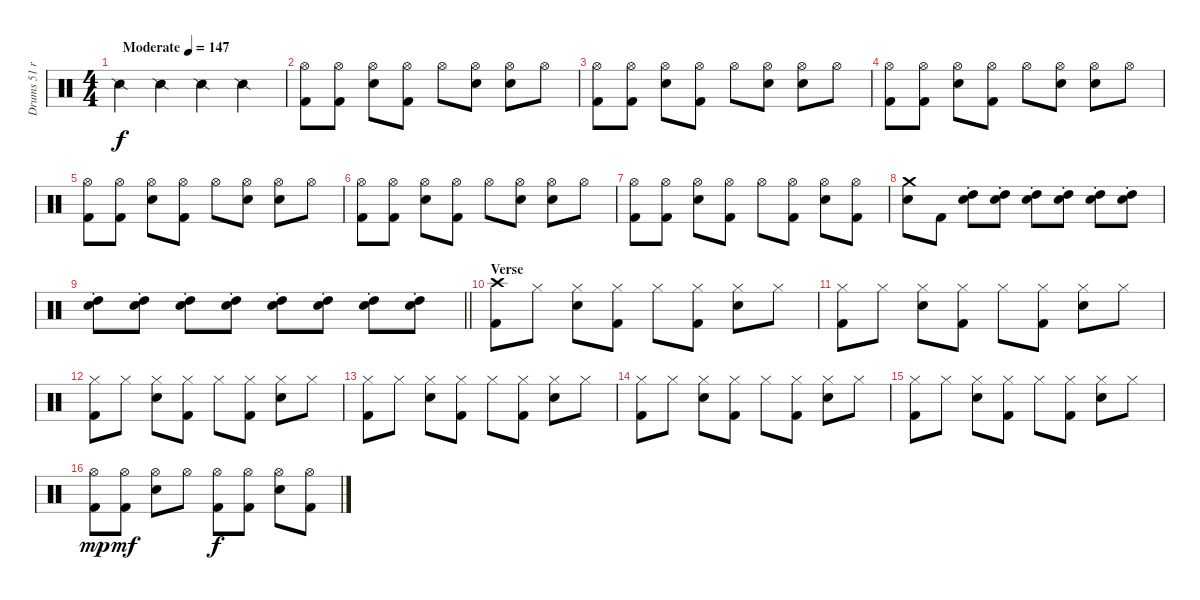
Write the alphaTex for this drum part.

\track ("Drums 51 ride" "Drums 51 r") {mute instrument percussion}
\staff {score}
\articulation defaults
\ts (4 4)
\tempo (147 "Moderate")
\clef neutral
\ks c "Snare (side stick) 2".4{dy f} "Snare (side stick) 2".4 "Snare (side stick) 2".4 "Snare (side stick) 2".4
|
("Hi-Hat (open)" "Kick (hit) 2").8 ("Hi-Hat (open)" "Kick (hit) 2").8 ("Hi-Hat (open)" "Snare (hit) 2").8 ("Hi-Hat (open)" "Kick (hit) 2").8 "Hi-Hat (open)".8 ("Hi-Hat (open)" "Snare (hit) 2").8 ("Hi-Hat (open)" "Snare (hit) 2").8 "Hi-Hat (open)".8 |
("Hi-Hat (open)" "Kick (hit) 2").8 ("Hi-Hat (open)" "Kick (hit) 2").8 ("Hi-Hat (open)" "Snare (hit) 2").8 ("Hi-Hat (open)" "Kick (hit) 2").8 "Hi-Hat (open)".8 ("Hi-Hat (open)" "Snare (hit) 2").8 ("Hi-Hat (open)" "Snare (hit) 2").8 "Hi-Hat (open)".8 |
("Hi-Hat (open)" "Kick (hit) 2").8 ("Hi-Hat (open)" "Kick (hit) 2").8 ("Hi-Hat (open)" "Snare (hit) 2").8 ("Hi-Hat (open)" "Kick (hit) 2").8 "Hi-Hat (open)".8 ("Hi-Hat (open)" "Snare (hit) 2").8 ("Hi-Hat (open)" "Snare (hit) 2").8 "Hi-Hat (open)".8 |
("Hi-Hat (open)" "Kick (hit) 2").8 ("Hi-Hat (open)" "Kick (hit) 2").8 ("Hi-Hat (open)" "Snare (hit) 2").8 ("Hi-Hat (open)" "Kick (hit) 2").8 "Hi-Hat (open)".8 ("Hi-Hat (open)" "Snare (hit) 2").8 ("Hi-Hat (open)" "Snare (hit) 2").8 "Hi-Hat (open)".8 |
("Hi-Hat (open)" "Kick (hit) 2").8 ("Hi-Hat (open)" "Kick (hit) 2").8 ("Hi-Hat (open)" "Snare (hit) 2").8 ("Hi-Hat (open)" "Kick (hit) 2").8 "Hi-Hat (open)".8 ("Hi-Hat (open)" "Snare (hit) 2").8 ("Hi-Hat (open)" "Snare (hit) 2").8 "Hi-Hat (open)".8 |
("Hi-Hat (open)" "Kick (hit) 2").8 ("Hi-Hat (open)" "Kick (hit) 2").8 ("Hi-Hat (open)" "Snare (hit) 2").8 ("Hi-Hat (open)" "Kick (hit) 2").8 "Hi-Hat (open)".8 ("Hi-Hat (open)" "Kick (hit) 2").8 ("Hi-Hat (open)" "Snare (hit) 2").8 ("Hi-Hat (open)" "Kick (hit) 2").8 |
("Crash medium (hit)" "Snare (hit) 2").8 "Kick (hit) 2".8 ("High Tom (hit)" "Snare (hit) 2"{st}).8 ("High Tom (hit)" "Snare (hit) 2"{st}).8 ("High Tom (hit)" "Snare (hit) 2"{st}).8 ("High Tom (hit)" "Snare (hit) 2"{st}).8 ("High Tom (hit)" "Snare (hit) 2"{st}).8 ("High Tom (hit)" "Snare (hit) 2"{st}).8 |
\barLineRight lightlight
("High Tom (hit)" "Snare (hit) 2"{st}).8 ("High Tom (hit)" "Snare (hit) 2"{st}).8 ("High Tom (hit)" "Snare (hit) 2"{st}).8 ("High Tom (hit)" "Snare (hit) 2"{st}).8 ("High Tom (hit)" "Snare (hit) 2"{st}).8 ("High Tom (hit)" "Snare (hit) 2"{st}).8 ("High Tom (hit)" "Snare (hit) 2"{st}).8 ("High Tom (hit)" "Snare (hit) 2"{st}).8 |
\section ("" "Verse")
("Crash high (hit)" "Kick (hit) 2").8 "Hi-Hat (closed)".8 ("Hi-Hat (closed)" "Snare (hit) 2").8 ("Hi-Hat (closed)" "Kick (hit) 2").8 "Hi-Hat (closed)".8 ("Hi-Hat (closed)" "Kick (hit) 2").8 ("Hi-Hat (closed)" "Snare (hit) 2").8 "Hi-Hat (closed)".8 |
("Hi-Hat (closed)" "Kick (hit) 2").8 "Hi-Hat (closed)".8 ("Hi-Hat (closed)" "Snare (hit) 2").8 ("Hi-Hat (closed)" "Kick (hit) 2").8 "Hi-Hat (closed)".8 ("Hi-Hat (closed)" "Kick (hit) 2").8 ("Hi-Hat (closed)" "Snare (hit) 2").8 "Hi-Hat (closed)".8 |
("Hi-Hat (closed)" "Kick (hit) 2").8 "Hi-Hat (closed)".8 ("Hi-Hat (closed)" "Snare (hit) 2").8 ("Hi-Hat (closed)" "Kick (hit) 2").8 "Hi-Hat (closed)".8 ("Hi-Hat (closed)" "Kick (hit) 2").8 ("Hi-Hat (closed)" "Snare (hit) 2").8 "Hi-Hat (closed)".8 |
("Hi-Hat (closed)" "Kick (hit) 2").8 "Hi-Hat (closed)".8 ("Hi-Hat (closed)" "Snare (hit) 2").8 ("Hi-Hat (closed)" "Kick (hit) 2").8 "Hi-Hat (closed)".8 ("Hi-Hat (closed)" "Kick (hit) 2").8 ("Hi-Hat (closed)" "Snare (hit) 2").8 "Hi-Hat (closed)".8 |
("Hi-Hat (closed)" "Kick (hit) 2").8 "Hi-Hat (closed)".8 ("Hi-Hat (closed)" "Snare (hit) 2").8 ("Hi-Hat (closed)" "Kick (hit) 2").8 "Hi-Hat (closed)".8 ("Hi-Hat (closed)" "Kick (hit) 2").8 ("Hi-Hat (closed)" "Snare (hit) 2").8 "Hi-Hat (closed)".8 |
("Hi-Hat (closed)" "Kick (hit) 2").8 "Hi-Hat (closed)".8 ("Hi-Hat (closed)" "Snare (hit) 2").8 ("Hi-Hat (closed)" "Kick (hit) 2").8 "Hi-Hat (closed)".8 ("Hi-Hat (closed)" "Kick (hit) 2").8 ("Hi-Hat (closed)" "Snare (hit) 2").8 "Hi-Hat (closed)".8 |
("Hi-Hat (open)" "Kick (hit) 2").8{dy mp} ("Hi-Hat (open)" "Kick (hit) 2").8{dy mf} ("Hi-Hat (open)" "Snare (hit) 2").8 "Hi-Hat (open)".8 ("Hi-Hat (open)" "Kick (hit) 2").8{dy f} ("Hi-Hat (open)" "Kick (hit) 2").8 ("Hi-Hat (open)" "Snare (hit) 2").8 ("Hi-Hat (open)" "Kick (hit) 2").8
